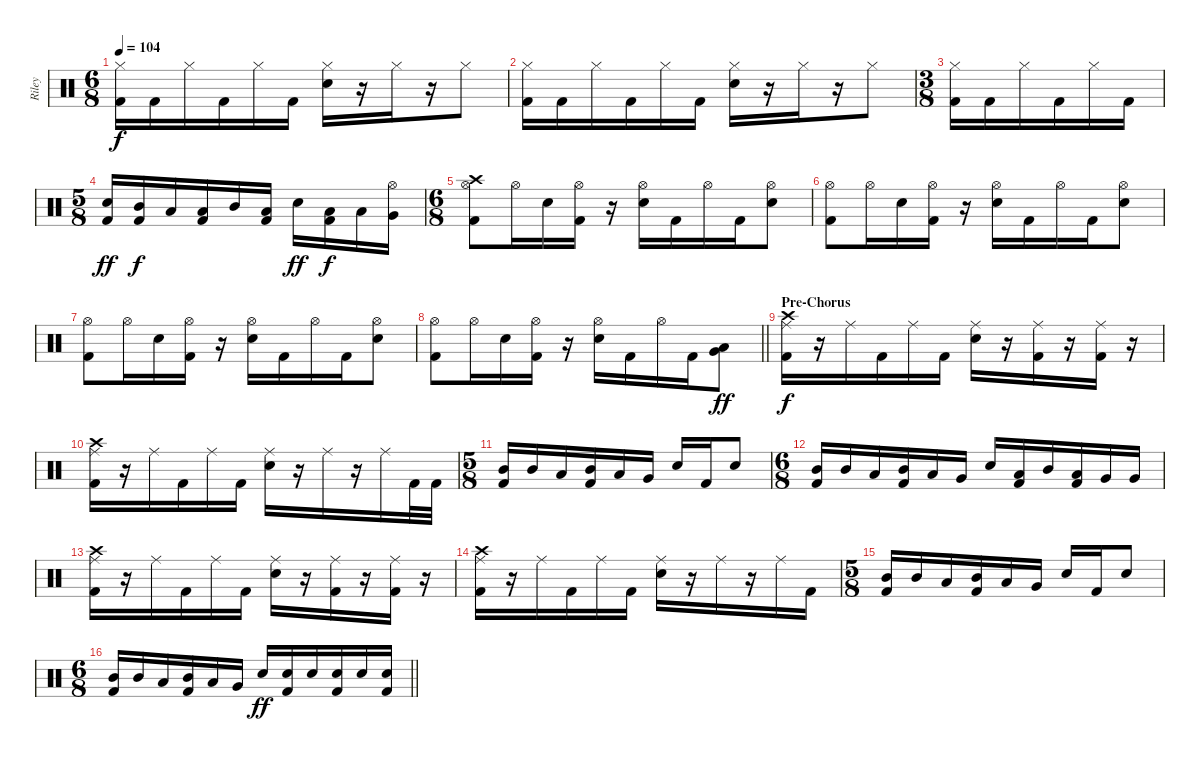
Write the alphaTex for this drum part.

\track ("Riley" "Riley") {instrument percussion}
\staff {score}
\articulation defaults
\ts (6 8)
\tempo 104
\clef neutral
\ks c
("Hi-Hat (closed)" "Kick (hit) 2").16{dy f} "Kick (hit) 2".16 "Hi-Hat (closed)".16 "Kick (hit) 2".16 "Hi-Hat (closed)".16 "Kick (hit) 2".16 ("Hi-Hat (closed)" "Electric Snare (hit)").16 r.16 "Hi-Hat (closed)".16 r.16 "Hi-Hat (closed)".8 |
("Hi-Hat (closed)" "Kick (hit) 2").16 "Kick (hit) 2".16 "Hi-Hat (closed)".16 "Kick (hit) 2".16 "Hi-Hat (closed)".16 "Kick (hit) 2".16 ("Hi-Hat (closed)" "Electric Snare (hit)").16 r.16 "Hi-Hat (closed)".16 r.16 "Hi-Hat (closed)".8 |
\ts (3 8)
("Hi-Hat (closed)" "Kick (hit) 2").16 "Kick (hit) 2".16 "Hi-Hat (closed)".16 "Kick (hit) 2".16 "Hi-Hat (closed)".16 "Kick (hit) 2".16 |
\ts (5 8)
("Electric Snare (hit)" "Kick (hit) 2").16{dy ff} ("Mid Tom (hit)" "Kick (hit) 2").16{dy f} "Low Tom (hit)".16 ("Low Tom (hit)" "Kick (hit) 2").16 "Mid Tom (hit)".16 ("Low Tom (hit)" "Kick (hit) 2").16 "Electric Snare (hit)".16{dy ff} ("Low Tom (hit)" "Kick (hit) 2").16{dy f} "Low Tom (hit)".16 ("Hi-Hat (open)" "Very Low Tom (hit)").16 |
\ts (6 8)
("Crash high (hit)" "Hi-Hat (open)" "Kick (hit) 2").8 "Hi-Hat (open)".16 "Electric Snare (hit)".16 ("Hi-Hat (open)" "Kick (hit) 2").16 r.16 ("Hi-Hat (open)" "Electric Snare (hit)").16 "Kick (hit) 2".16 "Hi-Hat (open)".16 "Kick (hit) 2".16 ("Hi-Hat (open)" "Electric Snare (hit)").8 |
("Hi-Hat (open)" "Kick (hit) 2").8 "Hi-Hat (open)".16 "Electric Snare (hit)".16 ("Hi-Hat (open)" "Kick (hit) 2").16 r.16 ("Hi-Hat (open)" "Electric Snare (hit)").16 "Kick (hit) 2".16 "Hi-Hat (open)".16 "Kick (hit) 2".16 ("Hi-Hat (open)" "Electric Snare (hit)").8 |
("Hi-Hat (open)" "Kick (hit) 2").8 "Hi-Hat (open)".16 "Electric Snare (hit)".16 ("Hi-Hat (open)" "Kick (hit) 2").16 r.16 ("Hi-Hat (open)" "Electric Snare (hit)").16 "Kick (hit) 2".16 "Hi-Hat (open)".16 "Kick (hit) 2".16 ("Hi-Hat (open)" "Electric Snare (hit)").8 |
\barLineRight lightlight
("Hi-Hat (open)" "Kick (hit) 2").8 "Hi-Hat (open)".16 "Electric Snare (hit)".16 ("Hi-Hat (open)" "Kick (hit) 2").16 r.16 ("Hi-Hat (open)" "Electric Snare (hit)").16 "Kick (hit) 2".16 "Hi-Hat (open)".16 "Kick (hit) 2".16 ("Low Floor Tom (hit)" "Very Low Tom (hit)").8{dy ff} |
\section ("" "Pre-Chorus")
("Crash high (hit)" "Ride (middle)" "Kick (hit) 2").16{dy f} r.16 "Ride (middle)".16 "Kick (hit) 2".16 "Ride (middle)".16 "Kick (hit) 2".16 ("Ride (middle)" "Electric Snare (hit)").16 r.16 ("Ride (middle)" "Kick (hit) 2").16 r.16 ("Ride (middle)" "Kick (hit) 2").16 r.16 |
("Crash high (hit)" "Ride (middle)" "Kick (hit) 2").16 r.16 "Ride (middle)".16 "Kick (hit) 2".16 "Ride (middle)".16 "Kick (hit) 2".16 ("Ride (middle)" "Electric Snare (hit)").16 r.16 "Ride (middle)".16 r.16 "Ride (middle)".16 "Kick (hit) 2".32 "Kick (hit) 2".32 |
\ts (5 8)
("Mid Tom (hit)" "Kick (hit) 2").16 "Mid Tom (hit)".16 "Low Tom (hit)".16 ("Mid Tom (hit)" "Kick (hit) 2").16 "Low Tom (hit)".16 "Very Low Tom (hit)".16 "Electric Snare (hit)".16 "Kick (hit) 2".16 "Electric Snare (hit)".8 |
\ts (6 8)
("Mid Tom (hit)" "Kick (hit) 2").16 "Mid Tom (hit)".16 "Low Tom (hit)".16 ("Mid Tom (hit)" "Kick (hit) 2").16 "Low Tom (hit)".16 "Very Low Tom (hit)".16 "Electric Snare (hit)".16 ("Low Tom (hit)" "Kick (hit) 2").16 "Mid Tom (hit)".16 ("Low Tom (hit)" "Kick (hit) 2").16 "Very Low Tom (hit)".16 "Very Low Tom (hit)".16 |
("Crash high (hit)" "Ride (middle)" "Kick (hit) 2").16 r.16 "Ride (middle)".16 "Kick (hit) 2".16 "Ride (middle)".16 "Kick (hit) 2".16 ("Ride (middle)" "Electric Snare (hit)").16 r.16 ("Ride (middle)" "Kick (hit) 2").16 r.16 ("Ride (middle)" "Kick (hit) 2").16 r.16 |
("Crash high (hit)" "Ride (middle)" "Kick (hit) 2").16 r.16 "Ride (middle)".16 "Kick (hit) 2".16 "Ride (middle)".16 "Kick (hit) 2".16 ("Ride (middle)" "Electric Snare (hit)").16 r.16 "Ride (middle)".16 r.16 "Ride (middle)".16 "Kick (hit) 2".16 |
\ts (5 8)
("Mid Tom (hit)" "Kick (hit) 2").16 "Mid Tom (hit)".16 "Low Tom (hit)".16 ("Mid Tom (hit)" "Kick (hit) 2").16 "Low Tom (hit)".16 "Very Low Tom (hit)".16 "Electric Snare (hit)".16 "Kick (hit) 2".16 "Electric Snare (hit)".8 |
\ts (6 8)
\barLineRight lightlight
("Mid Tom (hit)" "Kick (hit) 2").16 "Mid Tom (hit)".16 "Low Tom (hit)".16 ("Mid Tom (hit)" "Kick (hit) 2").16 "Low Tom (hit)".16 "Very Low Tom (hit)".16 "Electric Snare (hit)".16{dy ff} ("Electric Snare (hit)" "Kick (hit) 2").16 "Electric Snare (hit)".16 ("Electric Snare (hit)" "Kick (hit) 2").16 "Electric Snare (hit)".16 ("Electric Snare (hit)" "Kick (hit) 2").16
